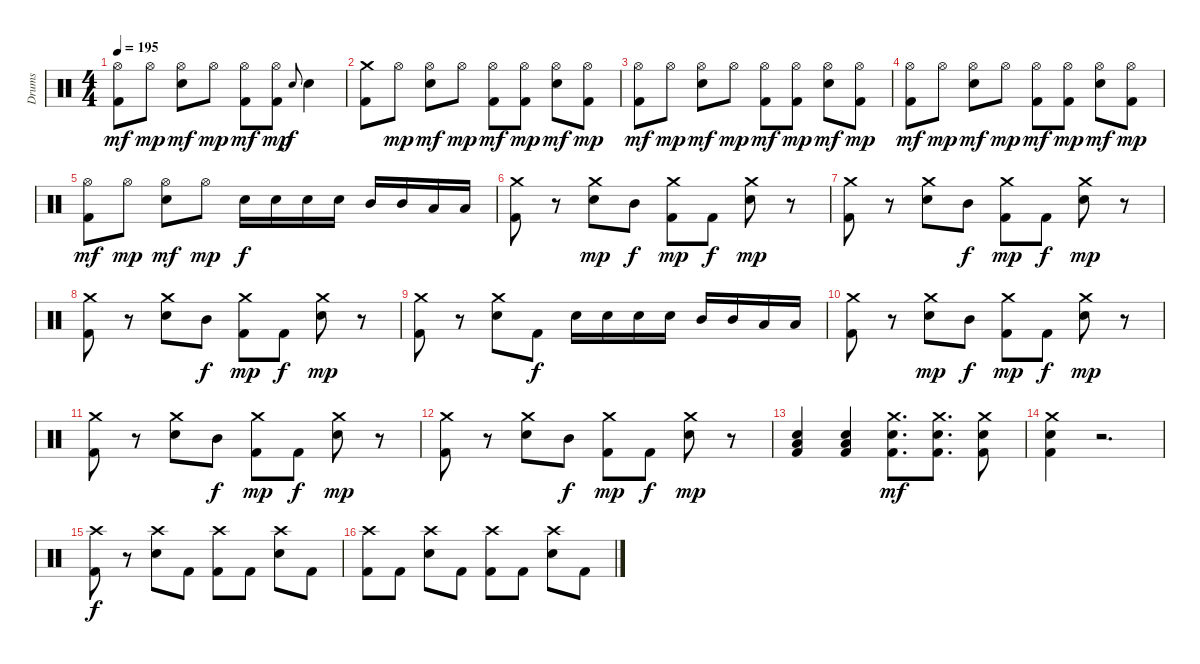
\track ("Drums" "Drums") {instrument percussion}
\staff {score}
\articulation defaults
\ts (4 4)
\tempo 195
\clef neutral
\ks c
("Hi-Hat (open)" "Kick (hit) 2").8{dy mf} "Hi-Hat (open)".8{dy mp} ("Hi-Hat (open)" "Electric Snare (hit)").8{dy mf} "Hi-Hat (open)".8{dy mp} ("Hi-Hat (open)" "Kick (hit) 2").8{dy mf} ("Hi-Hat (open)" "Kick (hit) 2").8{dy mp} "Electric Snare (hit)".8{gr onbeat dy f} "Electric Snare (hit)".4 |
("Crash medium (hit)" "Kick (hit) 2").8 "Hi-Hat (open)".8{dy mp} ("Hi-Hat (open)" "Electric Snare (hit)").8{dy mf} "Hi-Hat (open)".8{dy mp} ("Hi-Hat (open)" "Kick (hit) 2").8{dy mf} ("Hi-Hat (open)" "Kick (hit) 2").8{dy mp} ("Hi-Hat (open)" "Electric Snare (hit)").8{dy mf} ("Hi-Hat (open)" "Kick (hit) 2").8{dy mp} |
("Hi-Hat (open)" "Kick (hit) 2").8{dy mf} "Hi-Hat (open)".8{dy mp} ("Hi-Hat (open)" "Electric Snare (hit)").8{dy mf} "Hi-Hat (open)".8{dy mp} ("Hi-Hat (open)" "Kick (hit) 2").8{dy mf} ("Hi-Hat (open)" "Kick (hit) 2").8{dy mp} ("Hi-Hat (open)" "Electric Snare (hit)").8{dy mf} ("Hi-Hat (open)" "Kick (hit) 2").8{dy mp} |
("Hi-Hat (open)" "Kick (hit) 2").8{dy mf} "Hi-Hat (open)".8{dy mp} ("Hi-Hat (open)" "Electric Snare (hit)").8{dy mf} "Hi-Hat (open)".8{dy mp} ("Hi-Hat (open)" "Kick (hit) 2").8{dy mf} ("Hi-Hat (open)" "Kick (hit) 2").8{dy mp} ("Hi-Hat (open)" "Electric Snare (hit)").8{dy mf} ("Hi-Hat (open)" "Kick (hit) 2").8{dy mp} |
("Hi-Hat (open)" "Kick (hit) 2").8{dy mf} "Hi-Hat (open)".8{dy mp} ("Hi-Hat (open)" "Electric Snare (hit)").8{dy mf} "Hi-Hat (open)".8{dy mp} "Electric Snare (hit)".16{dy f} "Electric Snare (hit)".16 "Electric Snare (hit)".16 "Electric Snare (hit)".16 "Mid Tom (hit)".16 "Mid Tom (hit)".16 "Low Tom (hit)".16 "Low Tom (hit)".16 |
("Crash medium (hit)" "Kick (hit) 2").8 r.8 ("Crash medium (hit)" "Electric Snare (hit)").8{dy mp} "Mid Tom (hit)".8{dy f} ("Crash medium (hit)" "Kick (hit) 2").8{dy mp} "Kick (hit) 2".8{dy f} ("Crash medium (hit)" "Electric Snare (hit)").8{dy mp} r.8 |
("Crash medium (hit)" "Kick (hit) 2").8 r.8 ("Crash medium (hit)" "Electric Snare (hit)").8 "Mid Tom (hit)".8{dy f} ("Crash medium (hit)" "Kick (hit) 2").8{dy mp} "Kick (hit) 2".8{dy f} ("Crash medium (hit)" "Electric Snare (hit)").8{dy mp} r.8 |
("Crash medium (hit)" "Kick (hit) 2").8 r.8 ("Crash medium (hit)" "Electric Snare (hit)").8 "Mid Tom (hit)".8{dy f} ("Crash medium (hit)" "Kick (hit) 2").8{dy mp} "Kick (hit) 2".8{dy f} ("Crash medium (hit)" "Electric Snare (hit)").8{dy mp} r.8 |
("Crash medium (hit)" "Kick (hit) 2").8 r.8 ("Crash medium (hit)" "Electric Snare (hit)").8 "Kick (hit) 2".8{dy f} "Electric Snare (hit)".16 "Electric Snare (hit)".16 "Electric Snare (hit)".16 "Electric Snare (hit)".16 "Mid Tom (hit)".16 "Mid Tom (hit)".16 "Low Tom (hit)".16 "Low Tom (hit)".16 |
("Crash medium (hit)" "Kick (hit) 2").8 r.8 ("Crash medium (hit)" "Electric Snare (hit)").8{dy mp} "Mid Tom (hit)".8{dy f} ("Crash medium (hit)" "Kick (hit) 2").8{dy mp} "Kick (hit) 2".8{dy f} ("Crash medium (hit)" "Electric Snare (hit)").8{dy mp} r.8 |
("Crash medium (hit)" "Kick (hit) 2").8 r.8 ("Crash medium (hit)" "Electric Snare (hit)").8 "Mid Tom (hit)".8{dy f} ("Crash medium (hit)" "Kick (hit) 2").8{dy mp} "Kick (hit) 2".8{dy f} ("Crash medium (hit)" "Electric Snare (hit)").8{dy mp} r.8 |
("Crash medium (hit)" "Kick (hit) 2").8 r.8 ("Crash medium (hit)" "Electric Snare (hit)").8 "Mid Tom (hit)".8{dy f} ("Crash medium (hit)" "Kick (hit) 2").8{dy mp} "Kick (hit) 2".8{dy f} ("Crash medium (hit)" "Electric Snare (hit)").8{dy mp} r.8 |
("Low Tom (hit)" "Electric Snare (hit)" "Kick (hit) 2").4 ("Low Tom (hit)" "Electric Snare (hit)" "Kick (hit) 2").4 ("Crash medium (hit)" "Electric Snare (hit)" "Kick (hit) 2").8{d dy mf} ("Crash medium (hit)" "Electric Snare (hit)" "Kick (hit) 2").8{d} ("Crash medium (hit)" "Electric Snare (hit)" "Kick (hit) 2").8 |
("Crash medium (hit)" "Electric Snare (hit)" "Kick (hit) 2").4 r.2{d} |
("Crash high (hit)" "Kick (hit) 2").8{dy f} r.8 ("Crash high (hit)" "Electric Snare (hit)").8 "Kick (hit) 2".8 ("Crash high (hit)" "Kick (hit) 2").8 "Kick (hit) 2".8 ("Crash high (hit)" "Electric Snare (hit)").8 "Kick (hit) 2".8 |
("Crash high (hit)" "Kick (hit) 2").8 "Kick (hit) 2".8 ("Crash high (hit)" "Electric Snare (hit)").8 "Kick (hit) 2".8 ("Crash high (hit)" "Kick (hit) 2").8 "Kick (hit) 2".8 ("Crash high (hit)" "Electric Snare (hit)").8 "Kick (hit) 2".8
